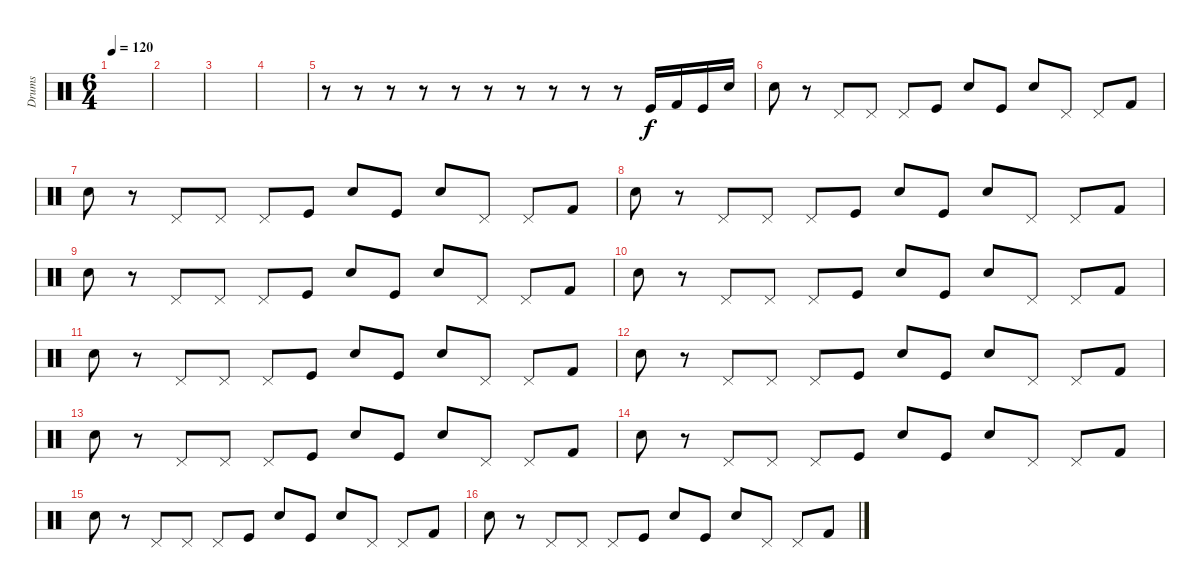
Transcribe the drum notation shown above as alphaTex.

\track ("Drums" "Drums") {instrument percussion}
\staff {score}
\articulation defaults
\ts (6 4)
\tempo 120
\clef neutral
\ks c
|
|
|
|
r.8 r.8 r.8 r.8 r.8 r.8 r.8 r.8 r.8 r.8 "Kick (hit)".16 "Kick (hit) 2".16 "Kick (hit)".16 "Snare (hit) 2".16 |
"Electric Snare (hit)".8 r.8 "Pedal Hi-Hat (hit)".8 "Pedal Hi-Hat (hit)".8 "Pedal Hi-Hat (hit)".8 "Kick (hit)".8 "Electric Snare (hit)".8 "Kick (hit)".8 "Electric Snare (hit)".8 "Pedal Hi-Hat (hit)".8 "Pedal Hi-Hat (hit)".8 "Kick (hit) 2".8 |
"Electric Snare (hit)".8 r.8 "Pedal Hi-Hat (hit)".8 "Pedal Hi-Hat (hit)".8 "Pedal Hi-Hat (hit)".8 "Kick (hit)".8 "Electric Snare (hit)".8 "Kick (hit)".8 "Electric Snare (hit)".8 "Pedal Hi-Hat (hit)".8 "Pedal Hi-Hat (hit)".8 "Kick (hit) 2".8 |
"Electric Snare (hit)".8 r.8 "Pedal Hi-Hat (hit)".8 "Pedal Hi-Hat (hit)".8 "Pedal Hi-Hat (hit)".8 "Kick (hit)".8 "Electric Snare (hit)".8 "Kick (hit)".8 "Electric Snare (hit)".8 "Pedal Hi-Hat (hit)".8 "Pedal Hi-Hat (hit)".8 "Kick (hit) 2".8 |
"Electric Snare (hit)".8 r.8 "Pedal Hi-Hat (hit)".8 "Pedal Hi-Hat (hit)".8 "Pedal Hi-Hat (hit)".8 "Kick (hit)".8 "Electric Snare (hit)".8 "Kick (hit)".8 "Electric Snare (hit)".8 "Pedal Hi-Hat (hit)".8 "Pedal Hi-Hat (hit)".8 "Kick (hit) 2".8 |
"Electric Snare (hit)".8 r.8 "Pedal Hi-Hat (hit)".8 "Pedal Hi-Hat (hit)".8 "Pedal Hi-Hat (hit)".8 "Kick (hit)".8 "Electric Snare (hit)".8 "Kick (hit)".8 "Electric Snare (hit)".8 "Pedal Hi-Hat (hit)".8 "Pedal Hi-Hat (hit)".8 "Kick (hit) 2".8 |
"Electric Snare (hit)".8 r.8 "Pedal Hi-Hat (hit)".8 "Pedal Hi-Hat (hit)".8 "Pedal Hi-Hat (hit)".8 "Kick (hit)".8 "Electric Snare (hit)".8 "Kick (hit)".8 "Electric Snare (hit)".8 "Pedal Hi-Hat (hit)".8 "Pedal Hi-Hat (hit)".8 "Kick (hit) 2".8 |
"Electric Snare (hit)".8 r.8 "Pedal Hi-Hat (hit)".8 "Pedal Hi-Hat (hit)".8 "Pedal Hi-Hat (hit)".8 "Kick (hit)".8 "Electric Snare (hit)".8 "Kick (hit)".8 "Electric Snare (hit)".8 "Pedal Hi-Hat (hit)".8 "Pedal Hi-Hat (hit)".8 "Kick (hit) 2".8 |
"Electric Snare (hit)".8 r.8 "Pedal Hi-Hat (hit)".8 "Pedal Hi-Hat (hit)".8 "Pedal Hi-Hat (hit)".8 "Kick (hit)".8 "Electric Snare (hit)".8 "Kick (hit)".8 "Electric Snare (hit)".8 "Pedal Hi-Hat (hit)".8 "Pedal Hi-Hat (hit)".8 "Kick (hit) 2".8 |
"Electric Snare (hit)".8 r.8 "Pedal Hi-Hat (hit)".8 "Pedal Hi-Hat (hit)".8 "Pedal Hi-Hat (hit)".8 "Kick (hit)".8 "Electric Snare (hit)".8 "Kick (hit)".8 "Electric Snare (hit)".8 "Pedal Hi-Hat (hit)".8 "Pedal Hi-Hat (hit)".8 "Kick (hit) 2".8 |
"Electric Snare (hit)".8 r.8 "Pedal Hi-Hat (hit)".8 "Pedal Hi-Hat (hit)".8 "Pedal Hi-Hat (hit)".8 "Kick (hit)".8 "Electric Snare (hit)".8 "Kick (hit)".8 "Electric Snare (hit)".8 "Pedal Hi-Hat (hit)".8 "Pedal Hi-Hat (hit)".8 "Kick (hit) 2".8 |
"Electric Snare (hit)".8 r.8 "Pedal Hi-Hat (hit)".8 "Pedal Hi-Hat (hit)".8 "Pedal Hi-Hat (hit)".8 "Kick (hit)".8 "Electric Snare (hit)".8 "Kick (hit)".8 "Electric Snare (hit)".8 "Pedal Hi-Hat (hit)".8 "Pedal Hi-Hat (hit)".8 "Kick (hit) 2".8
